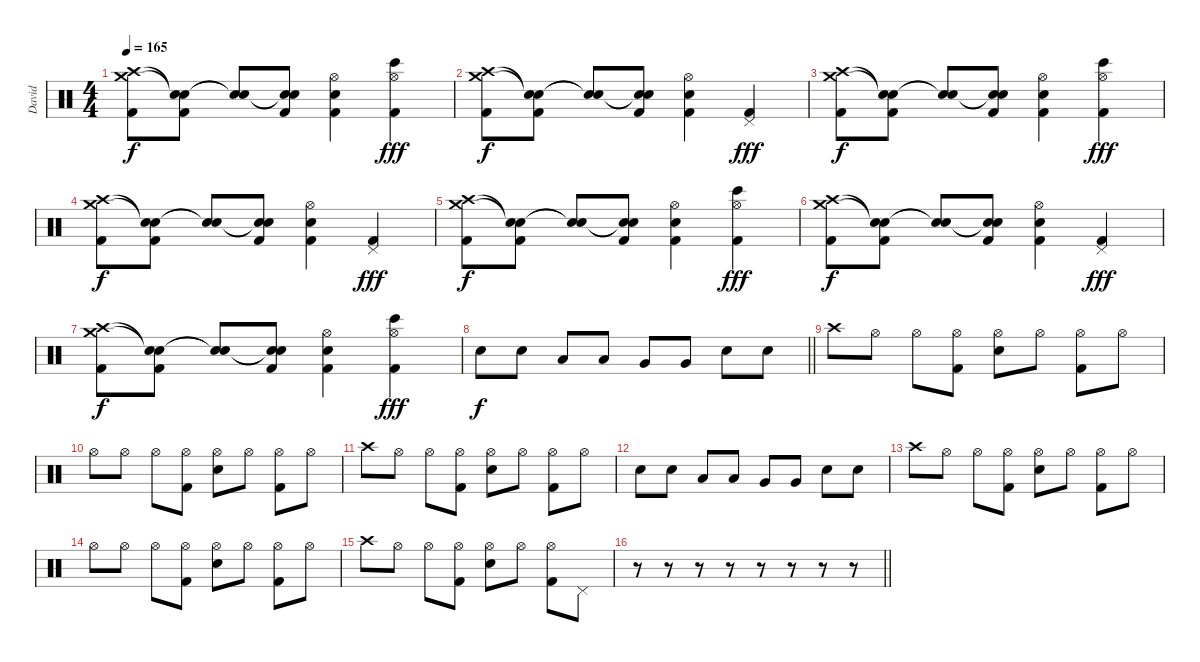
\track ("David" "David") {instrument percussion}
\staff {score}
\articulation defaults
\ts (4 4)
\tempo 165
\clef neutral
\ks c
("Crash medium (hit)" "Crash high (hit)" "Kick (hit) 2").8{dy f} ("Snare (hit)"{t} "Snare (hit)"{t} "Kick (hit) 2").8 ("Snare (hit)"{t} "Snare (hit)"{t}).8 ("Snare (hit)"{t} "Snare (hit)"{t} "Kick (hit) 2").8 ("Electric Snare (hit)" "Hi-Hat (open)" "Kick (hit) 2").4 ("Bongo High (hit)" "Hi-Hat (open)" "Kick (hit) 2").4{dy fff} |
("Crash medium (hit)" "Crash high (hit)" "Kick (hit) 2").8{dy f} ("Snare (hit)"{t} "Snare (hit)"{t} "Kick (hit) 2").8 ("Snare (hit)"{t} "Snare (hit)"{t}).8 ("Snare (hit)"{t} "Snare (hit)"{t} "Kick (hit) 2").8 ("Electric Snare (hit)" "Hi-Hat (open)" "Kick (hit) 2").4 ("Pedal Hi-Hat (hit)" "Kick (hit) 2").4{dy fff} |
("Crash medium (hit)" "Crash high (hit)" "Kick (hit) 2").8{dy f} ("Snare (hit)"{t} "Snare (hit)"{t} "Kick (hit) 2").8 ("Snare (hit)"{t} "Snare (hit)"{t}).8 ("Snare (hit)"{t} "Snare (hit)"{t} "Kick (hit) 2").8 ("Electric Snare (hit)" "Hi-Hat (open)" "Kick (hit) 2").4 ("Bongo High (hit)" "Hi-Hat (open)" "Kick (hit) 2").4{dy fff} |
("Crash medium (hit)" "Crash high (hit)" "Kick (hit) 2").8{dy f} ("Snare (hit)"{t} "Snare (hit)"{t} "Kick (hit) 2").8 ("Snare (hit)"{t} "Snare (hit)"{t}).8 ("Snare (hit)"{t} "Snare (hit)"{t} "Kick (hit) 2").8 ("Electric Snare (hit)" "Hi-Hat (open)" "Kick (hit) 2").4 ("Pedal Hi-Hat (hit)" "Kick (hit) 2").4{dy fff} |
("Crash medium (hit)" "Crash high (hit)" "Kick (hit) 2").8{dy f} ("Snare (hit)"{t} "Snare (hit)"{t} "Kick (hit) 2").8 ("Snare (hit)"{t} "Snare (hit)"{t}).8 ("Snare (hit)"{t} "Snare (hit)"{t} "Kick (hit) 2").8 ("Electric Snare (hit)" "Hi-Hat (open)" "Kick (hit) 2").4 ("Bongo High (hit)" "Hi-Hat (open)" "Kick (hit) 2").4{dy fff} |
("Crash medium (hit)" "Crash high (hit)" "Kick (hit) 2").8{dy f} ("Snare (hit)"{t} "Snare (hit)"{t} "Kick (hit) 2").8 ("Snare (hit)"{t} "Snare (hit)"{t}).8 ("Snare (hit)"{t} "Snare (hit)"{t} "Kick (hit) 2").8 ("Electric Snare (hit)" "Hi-Hat (open)" "Kick (hit) 2").4 ("Pedal Hi-Hat (hit)" "Kick (hit) 2").4{dy fff} |
("Crash medium (hit)" "Crash high (hit)" "Kick (hit) 2").8{dy f} ("Snare (hit)"{t} "Snare (hit)"{t} "Kick (hit) 2").8 ("Snare (hit)"{t} "Snare (hit)"{t}).8 ("Snare (hit)"{t} "Snare (hit)"{t} "Kick (hit) 2").8 ("Electric Snare (hit)" "Hi-Hat (open)" "Kick (hit) 2").4 ("Bongo High (hit)" "Hi-Hat (open)" "Kick (hit) 2").4{dy fff} |
\barLineRight lightlight "Electric Snare (hit)".8{dy f} "Electric Snare (hit)".8 "Low Tom (hit)".8 "Low Tom (hit)".8 "Very Low Tom (hit)".8 "Very Low Tom (hit)".8 "Electric Snare (hit)".8 "Electric Snare (hit)".8
|
"Crash high (hit)".8 "Hi-Hat (open)".8 "Hi-Hat (open)".8 ("Hi-Hat (open)" "Kick (hit) 2").8 ("Electric Snare (hit)" "Hi-Hat (open)").8 "Hi-Hat (open)".8 ("Hi-Hat (open)" "Kick (hit) 2").8 "Hi-Hat (open)".8 |
"Hi-Hat (open)".8 "Hi-Hat (open)".8 "Hi-Hat (open)".8 ("Hi-Hat (open)" "Kick (hit) 2").8 ("Electric Snare (hit)" "Hi-Hat (open)").8 "Hi-Hat (open)".8 ("Hi-Hat (open)" "Kick (hit) 2").8 "Hi-Hat (open)".8 |
"Crash high (hit)".8 "Hi-Hat (open)".8 "Hi-Hat (open)".8 ("Hi-Hat (open)" "Kick (hit) 2").8 ("Electric Snare (hit)" "Hi-Hat (open)").8 "Hi-Hat (open)".8 ("Hi-Hat (open)" "Kick (hit) 2").8 "Hi-Hat (open)".8 |
"Electric Snare (hit)".8 "Electric Snare (hit)".8 "Low Tom (hit)".8 "Low Tom (hit)".8 "Very Low Tom (hit)".8 "Very Low Tom (hit)".8 "Electric Snare (hit)".8 "Electric Snare (hit)".8 |
"Crash high (hit)".8 "Hi-Hat (open)".8 "Hi-Hat (open)".8 ("Hi-Hat (open)" "Kick (hit) 2").8 ("Electric Snare (hit)" "Hi-Hat (open)").8 "Hi-Hat (open)".8 ("Hi-Hat (open)" "Kick (hit) 2").8 "Hi-Hat (open)".8 |
"Hi-Hat (open)".8 "Hi-Hat (open)".8 "Hi-Hat (open)".8 ("Hi-Hat (open)" "Kick (hit) 2").8 ("Electric Snare (hit)" "Hi-Hat (open)").8 "Hi-Hat (open)".8 ("Hi-Hat (open)" "Kick (hit) 2").8 "Hi-Hat (open)".8 |
"Crash high (hit)".8 "Hi-Hat (open)".8 "Hi-Hat (open)".8 ("Hi-Hat (open)" "Kick (hit) 2").8 ("Electric Snare (hit)" "Hi-Hat (open)").8 "Hi-Hat (open)".8 ("Hi-Hat (open)" "Kick (hit) 2").8 "Pedal Hi-Hat (hit)".8 |
\barLineRight lightlight
r.8 r.8 r.8 r.8 r.8 r.8 r.8 r.8
